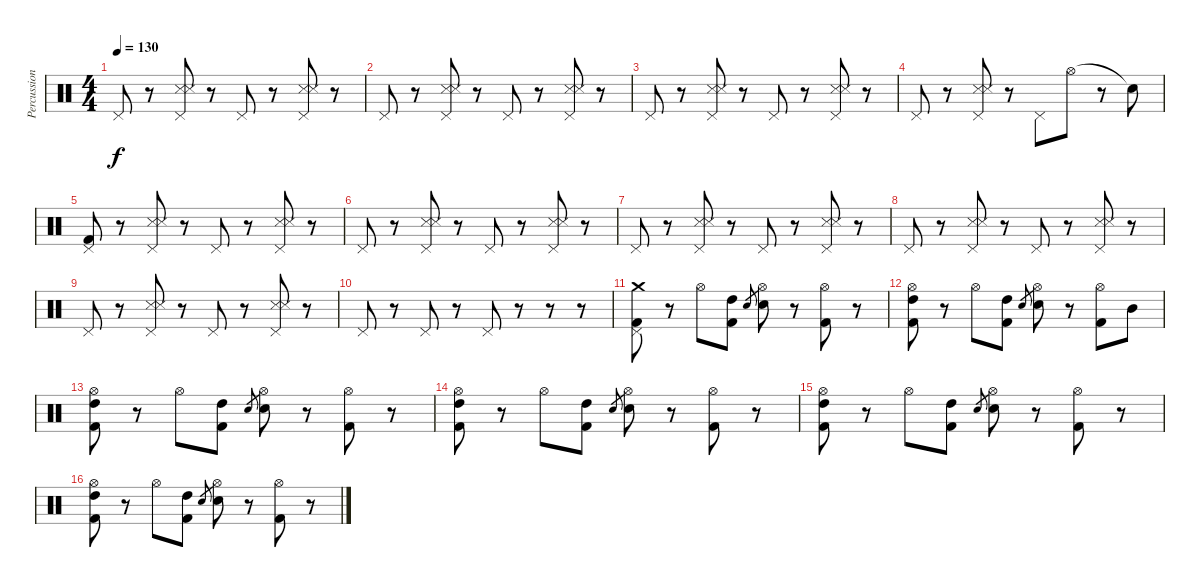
\track ("Percussion" "Percussion") {instrument percussion}
\staff {score}
\articulation defaults
\ts (4 4)
\tempo 130
\clef neutral
\ks c "Pedal Hi-Hat (hit)".8{dy f}
r.8 ("Pedal Hi-Hat (hit)" "Snare (side stick) 3" "Snare (side stick) 3").8 r.8 "Pedal Hi-Hat (hit)".8 r.8 ("Pedal Hi-Hat (hit)" "Snare (side stick) 3" "Snare (side stick) 3").8 r.8 |
"Pedal Hi-Hat (hit)".8 r.8 ("Pedal Hi-Hat (hit)" "Snare (side stick) 3" "Snare (side stick) 3").8 r.8 "Pedal Hi-Hat (hit)".8 r.8 ("Pedal Hi-Hat (hit)" "Snare (side stick) 3" "Snare (side stick) 3").8 r.8 |
"Pedal Hi-Hat (hit)".8 r.8 ("Pedal Hi-Hat (hit)" "Snare (side stick) 3" "Snare (side stick) 3").8 r.8 "Pedal Hi-Hat (hit)".8 r.8 ("Pedal Hi-Hat (hit)" "Snare (side stick) 3" "Snare (side stick) 3").8 r.8 |
"Pedal Hi-Hat (hit)".8 r.8 ("Pedal Hi-Hat (hit)" "Snare (side stick) 3" "Snare (side stick) 3").8 r.8 "Pedal Hi-Hat (hit)".8 "Hi-Hat (open)".8 r.8 "Snare (hit)"{t}.8 |
("Kick (hit) 2" "Pedal Hi-Hat (hit)").8 r.8 ("Pedal Hi-Hat (hit)" "Snare (side stick) 3" "Snare (side stick) 3").8 r.8 "Pedal Hi-Hat (hit)".8 r.8 ("Pedal Hi-Hat (hit)" "Snare (side stick) 3" "Snare (side stick) 3").8 r.8 |
"Pedal Hi-Hat (hit)".8 r.8 ("Pedal Hi-Hat (hit)" "Snare (side stick) 3" "Snare (side stick) 3").8 r.8 "Pedal Hi-Hat (hit)".8 r.8 ("Pedal Hi-Hat (hit)" "Snare (side stick) 3" "Snare (side stick) 3").8 r.8 |
"Pedal Hi-Hat (hit)".8 r.8 ("Pedal Hi-Hat (hit)" "Snare (side stick) 3" "Snare (side stick) 3").8 r.8 "Pedal Hi-Hat (hit)".8 r.8 ("Pedal Hi-Hat (hit)" "Snare (side stick) 3" "Snare (side stick) 3").8 r.8 |
"Pedal Hi-Hat (hit)".8 r.8 ("Pedal Hi-Hat (hit)" "Snare (side stick) 3" "Snare (side stick) 3").8 r.8 "Pedal Hi-Hat (hit)".8 r.8 ("Pedal Hi-Hat (hit)" "Snare (side stick) 3" "Snare (side stick) 3").8 r.8 |
"Pedal Hi-Hat (hit)".8 r.8 ("Pedal Hi-Hat (hit)" "Snare (side stick) 3" "Snare (side stick) 3").8 r.8 "Pedal Hi-Hat (hit)".8 r.8 ("Pedal Hi-Hat (hit)" "Snare (side stick) 3" "Snare (side stick) 3").8 r.8 |
"Pedal Hi-Hat (hit)".8 r.8 "Pedal Hi-Hat (hit)".8 r.8 "Pedal Hi-Hat (hit)".8 r.8 r.8 r.8 |
("Crash medium (hit)" "Pedal Hi-Hat (hit)" "Kick (hit) 2").8 r.8 "Hi-Hat (open)".8 ("High Tom (hit)" "Kick (hit) 2").8 "Snare (hit) 2".8{gr} ("Hi-Hat (open)" "Snare (hit) 2").8 r.8 ("Hi-Hat (open)" "Kick (hit) 2").8 r.8 |
("Hi-Hat (open)" "High Tom (hit)" "Kick (hit) 2").8 r.8 "Hi-Hat (open)".8 ("High Tom (hit)" "Kick (hit) 2").8 "Snare (hit) 2".8{gr} ("Hi-Hat (open)" "Snare (hit) 2").8 r.8 ("Hi-Hat (open)" "Kick (hit) 2").8 "Mid Tom (hit)".8 |
("Hi-Hat (open)" "High Tom (hit)" "Kick (hit) 2").8 r.8 "Hi-Hat (open)".8 ("High Tom (hit)" "Kick (hit) 2").8 "Snare (hit) 2".8{gr} ("Hi-Hat (open)" "Snare (hit) 2").8 r.8 ("Hi-Hat (open)" "Kick (hit) 2").8 r.8 |
("Hi-Hat (open)" "High Tom (hit)" "Kick (hit) 2").8 r.8 "Hi-Hat (open)".8 ("High Tom (hit)" "Kick (hit) 2").8 "Snare (hit) 2".8{gr} ("Hi-Hat (open)" "Snare (hit) 2").8 r.8 ("Hi-Hat (open)" "Kick (hit) 2").8 r.8 |
("Hi-Hat (open)" "High Tom (hit)" "Kick (hit) 2").8 r.8 "Hi-Hat (open)".8 ("High Tom (hit)" "Kick (hit) 2").8 "Snare (hit) 2".8{gr} ("Hi-Hat (open)" "Snare (hit) 2").8 r.8 ("Hi-Hat (open)" "Kick (hit) 2").8 r.8 |
("Hi-Hat (open)" "High Tom (hit)" "Kick (hit) 2").8 r.8 "Hi-Hat (open)".8 ("High Tom (hit)" "Kick (hit) 2").8 "Snare (hit) 2".8{gr} ("Hi-Hat (open)" "Snare (hit) 2").8 r.8 ("Hi-Hat (open)" "Kick (hit) 2").8 r.8
